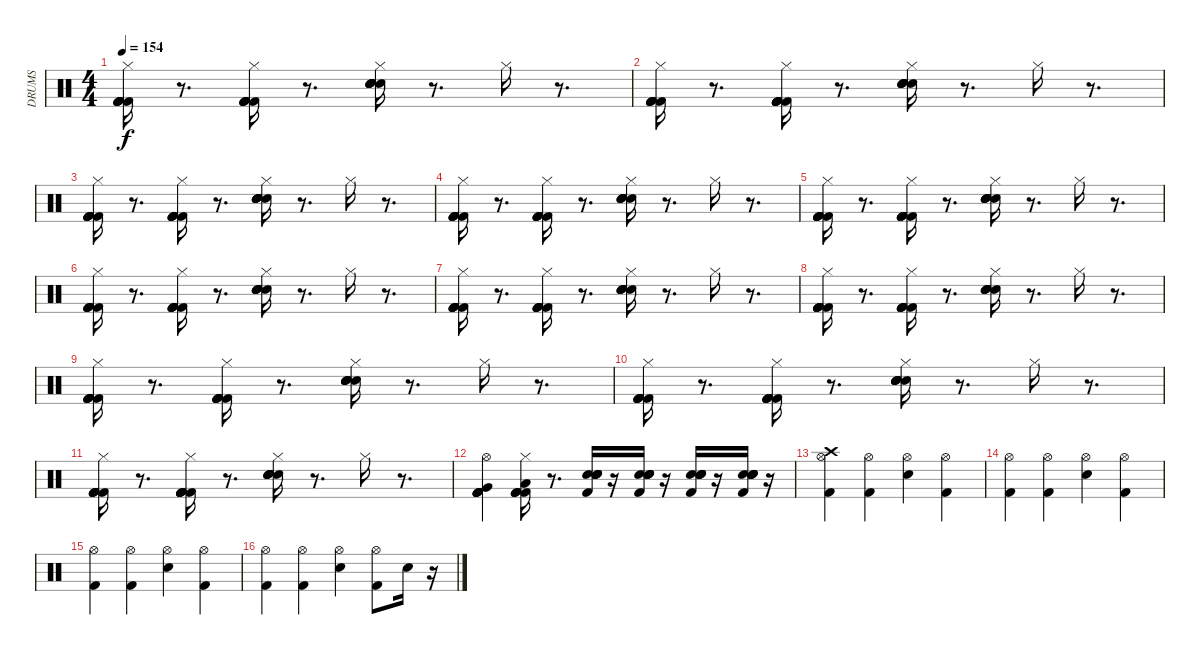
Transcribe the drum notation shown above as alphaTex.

\track ("DRUMS" "DRUMS") {instrument percussion}
\staff {score}
\articulation defaults
\ts (4 4)
\tempo 154
\clef neutral
\ks c
("Hi-Hat (closed)" "Kick (hit) 2" "Kick (hit) 2" "Kick (hit) 2" "Kick (hit) 2" "Kick (hit) 2").16{dy f} r.8{d} ("Hi-Hat (closed)" "Kick (hit) 2" "Kick (hit) 2" "Kick (hit) 2" "Kick (hit) 2" "Kick (hit) 2").16 r.8{d} ("Hi-Hat (closed)" "Snare (hit) 2" "Snare (hit) 2" "Snare (hit) 2" "Snare (hit) 2" "Snare (hit) 2").16 r.8{d} "Hi-Hat (closed)".16 r.8{d} |
("Hi-Hat (closed)" "Kick (hit) 2" "Kick (hit) 2" "Kick (hit) 2" "Kick (hit) 2" "Kick (hit) 2").16 r.8{d} ("Hi-Hat (closed)" "Kick (hit) 2" "Kick (hit) 2" "Kick (hit) 2" "Kick (hit) 2" "Kick (hit) 2").16 r.8{d} ("Hi-Hat (closed)" "Snare (hit) 2" "Snare (hit) 2" "Snare (hit) 2" "Snare (hit) 2" "Snare (hit) 2").16 r.8{d} "Hi-Hat (closed)".16 r.8{d} |
("Hi-Hat (closed)" "Kick (hit) 2" "Kick (hit) 2" "Kick (hit) 2" "Kick (hit) 2" "Kick (hit) 2").16 r.8{d} ("Hi-Hat (closed)" "Kick (hit) 2" "Kick (hit) 2" "Kick (hit) 2" "Kick (hit) 2" "Kick (hit) 2").16 r.8{d} ("Hi-Hat (closed)" "Snare (hit) 2" "Snare (hit) 2" "Snare (hit) 2" "Snare (hit) 2" "Snare (hit) 2").16 r.8{d} "Hi-Hat (closed)".16 r.8{d} |
("Hi-Hat (closed)" "Kick (hit) 2" "Kick (hit) 2" "Kick (hit) 2" "Kick (hit) 2" "Kick (hit) 2").16 r.8{d} ("Hi-Hat (closed)" "Kick (hit) 2" "Kick (hit) 2" "Kick (hit) 2" "Kick (hit) 2" "Kick (hit) 2").16 r.8{d} ("Hi-Hat (closed)" "Snare (hit) 2" "Snare (hit) 2" "Snare (hit) 2" "Snare (hit) 2" "Snare (hit) 2").16 r.8{d} "Hi-Hat (closed)".16 r.8{d} |
("Hi-Hat (closed)" "Kick (hit) 2" "Kick (hit) 2" "Kick (hit) 2" "Kick (hit) 2" "Kick (hit) 2").16 r.8{d} ("Hi-Hat (closed)" "Kick (hit) 2" "Kick (hit) 2" "Kick (hit) 2" "Kick (hit) 2" "Kick (hit) 2").16 r.8{d} ("Hi-Hat (closed)" "Snare (hit) 2" "Snare (hit) 2" "Snare (hit) 2" "Snare (hit) 2" "Snare (hit) 2").16 r.8{d} "Hi-Hat (closed)".16 r.8{d} |
("Hi-Hat (closed)" "Kick (hit) 2" "Kick (hit) 2" "Kick (hit) 2" "Kick (hit) 2" "Kick (hit) 2").16 r.8{d} ("Hi-Hat (closed)" "Kick (hit) 2" "Kick (hit) 2" "Kick (hit) 2" "Kick (hit) 2" "Kick (hit) 2").16 r.8{d} ("Hi-Hat (closed)" "Snare (hit) 2" "Snare (hit) 2" "Snare (hit) 2" "Snare (hit) 2" "Snare (hit) 2").16 r.8{d} "Hi-Hat (closed)".16 r.8{d} |
("Hi-Hat (closed)" "Kick (hit) 2" "Kick (hit) 2" "Kick (hit) 2" "Kick (hit) 2" "Kick (hit) 2").16 r.8{d} ("Hi-Hat (closed)" "Kick (hit) 2" "Kick (hit) 2" "Kick (hit) 2" "Kick (hit) 2" "Kick (hit) 2").16 r.8{d} ("Hi-Hat (closed)" "Snare (hit) 2" "Snare (hit) 2" "Snare (hit) 2" "Snare (hit) 2" "Snare (hit) 2").16 r.8{d} "Hi-Hat (closed)".16 r.8{d} |
("Hi-Hat (closed)" "Kick (hit) 2" "Kick (hit) 2" "Kick (hit) 2" "Kick (hit) 2" "Kick (hit) 2").16 r.8{d} ("Hi-Hat (closed)" "Kick (hit) 2" "Kick (hit) 2" "Kick (hit) 2" "Kick (hit) 2" "Kick (hit) 2").16 r.8{d} ("Hi-Hat (closed)" "Snare (hit) 2" "Snare (hit) 2" "Snare (hit) 2" "Snare (hit) 2" "Snare (hit) 2").16 r.8{d} "Hi-Hat (closed)".16 r.8{d} |
("Hi-Hat (closed)" "Kick (hit) 2" "Kick (hit) 2" "Kick (hit) 2" "Kick (hit) 2" "Kick (hit) 2").16 r.8{d} ("Hi-Hat (closed)" "Kick (hit) 2" "Kick (hit) 2" "Kick (hit) 2" "Kick (hit) 2" "Kick (hit) 2").16 r.8{d} ("Hi-Hat (closed)" "Snare (hit) 2" "Snare (hit) 2" "Snare (hit) 2" "Snare (hit) 2" "Snare (hit) 2").16 r.8{d} "Hi-Hat (closed)".16 r.8{d} |
("Hi-Hat (closed)" "Kick (hit) 2" "Kick (hit) 2" "Kick (hit) 2" "Kick (hit) 2" "Kick (hit) 2").16 r.8{d} ("Hi-Hat (closed)" "Kick (hit) 2" "Kick (hit) 2" "Kick (hit) 2" "Kick (hit) 2" "Kick (hit) 2").16 r.8{d} ("Hi-Hat (closed)" "Snare (hit) 2" "Snare (hit) 2" "Snare (hit) 2" "Snare (hit) 2" "Snare (hit) 2").16 r.8{d} "Hi-Hat (closed)".16 r.8{d} |
("Hi-Hat (closed)" "Kick (hit) 2" "Kick (hit) 2" "Kick (hit) 2" "Kick (hit) 2" "Kick (hit) 2").16 r.8{d} ("Hi-Hat (closed)" "Kick (hit) 2" "Kick (hit) 2" "Kick (hit) 2" "Kick (hit) 2" "Kick (hit) 2").16 r.8{d} ("Hi-Hat (closed)" "Snare (hit) 2" "Snare (hit) 2" "Snare (hit) 2" "Snare (hit) 2" "Snare (hit) 2").16 r.8{d} "Hi-Hat (closed)".16 r.8{d} |
("Very Low Tom (hit)" "Hi-Hat (open)" "Kick (hit) 2" "Kick (hit) 2" "Kick (hit) 2" "Kick (hit) 2").4 ("Low Floor Tom (hit)" "Hi-Hat (closed)" "Kick (hit) 2" "Kick (hit) 2" "Kick (hit) 2" "Kick (hit) 2").16 r.8{d} ("Snare (hit) 2" "Electric Snare (hit)" "Electric Snare (hit)" "Snare (hit) 2" "Kick (hit) 2" "Electric Snare (hit)").16 r.16 ("Snare (hit) 2" "Electric Snare (hit)" "Electric Snare (hit)" "Snare (hit) 2" "Kick (hit) 2" "Electric Snare (hit)").16 r.16 ("Snare (hit) 2" "Electric Snare (hit)" "Electric Snare (hit)" "Snare (hit) 2" "Kick (hit) 2" "Electric Snare (hit)").16 r.16 ("Snare (hit) 2" "Electric Snare (hit)" "Electric Snare (hit)" "Snare (hit) 2" "Kick (hit) 2" "Electric Snare (hit)").16 r.16 |
("Crash high (hit)" "Kick (hit) 2" "Hi-Hat (open)").4 ("Hi-Hat (open)" "Kick (hit) 2").4 ("Hi-Hat (open)" "Snare (hit) 2").4 ("Kick (hit) 2" "Hi-Hat (open)").4 |
("Hi-Hat (open)" "Kick (hit) 2").4 ("Hi-Hat (open)" "Kick (hit) 2").4 ("Hi-Hat (open)" "Snare (hit) 2").4 ("Kick (hit) 2" "Hi-Hat (open)").4 |
("Hi-Hat (open)" "Kick (hit) 2").4 ("Hi-Hat (open)" "Kick (hit) 2").4 ("Hi-Hat (open)" "Snare (hit) 2").4 ("Kick (hit) 2" "Hi-Hat (open)").4 |
("Hi-Hat (open)" "Kick (hit) 2").4 ("Hi-Hat (open)" "Kick (hit) 2").4 ("Hi-Hat (open)" "Snare (hit) 2").4 ("Hi-Hat (open)" "Kick (hit) 2").8 "Snare (hit) 2".16 r.16
